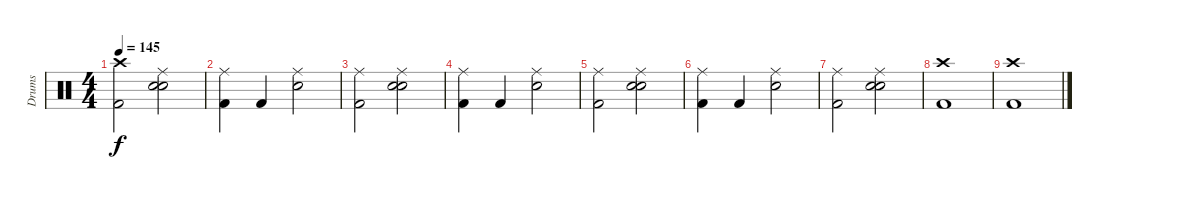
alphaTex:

\track ("Drums" "Drums") {instrument percussion}
\staff {score}
\articulation defaults
\ts (4 4)
\tempo 145
\clef neutral
\ks c
("Crash high (hit)" "Kick (hit) 2").2{dy f} ("Ride (middle)" "Snare (hit) 2" "Electric Snare (hit)").2 |
("Kick (hit) 2" "Ride (middle)").4 "Kick (hit) 2".4 ("Snare (hit) 2" "Ride (middle)").2 |
("Ride (middle)" "Kick (hit) 2").2 ("Ride (middle)" "Snare (hit) 2" "Electric Snare (hit)").2 |
("Kick (hit) 2" "Ride (middle)").4 "Kick (hit) 2".4 ("Snare (hit) 2" "Ride (middle)").2 |
("Ride (middle)" "Kick (hit) 2").2 ("Ride (middle)" "Snare (hit) 2" "Electric Snare (hit)").2 |
("Kick (hit) 2" "Ride (middle)").4 "Kick (hit) 2".4 ("Snare (hit) 2" "Ride (middle)").2 |
("Ride (middle)" "Kick (hit) 2").2 ("Ride (middle)" "Snare (hit) 2" "Electric Snare (hit)").2 |
("Kick (hit) 2" "Crash high (hit)").1 |
("Crash high (hit)" "Kick (hit) 2").1
